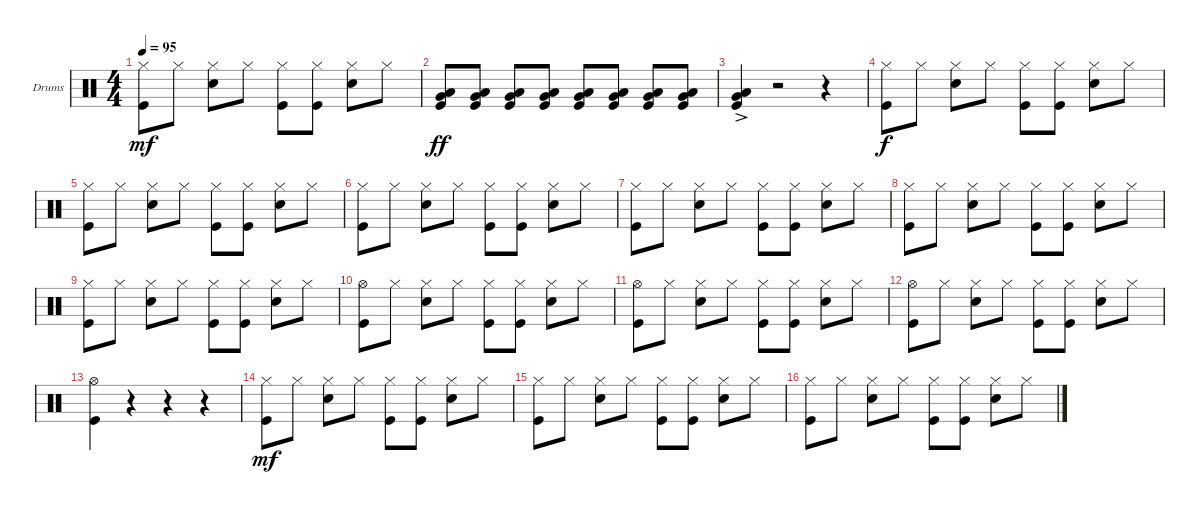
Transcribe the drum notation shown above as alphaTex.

\defaultSystemsLayout 4
\bracketExtendMode groupsimilarinstruments
\firstSystemTrackNameOrientation horizontal
\otherSystemsTrackNameOrientation horizontal
\track ("Drumkit" "Drums") {instrument percussion}
\staff {score}
\articulation defaults
\ts (4 4)
\tempo 95
\clef neutral
\ks c
("Kick (hit)" "Hi-Hat (closed)").8{dy mf} "Hi-Hat (closed)".8 ("Hi-Hat (closed)" "Snare (hit) 2").8 "Hi-Hat (closed)".8 ("Hi-Hat (closed)" "Kick (hit)").8 ("Hi-Hat (closed)" "Kick (hit)").8 ("Hi-Hat (closed)" "Snare (hit) 2").8 "Hi-Hat (closed)".8 |
("Kick (hit)" "Low Tom (hit)" "Very Low Tom (hit)").8{dy ff} ("Low Tom (hit)" "Kick (hit)" "Very Low Tom (hit)").8 ("Kick (hit)" "Low Tom (hit)" "Very Low Tom (hit)").8 ("Low Tom (hit)" "Kick (hit)" "Very Low Tom (hit)").8 ("Kick (hit)" "Low Tom (hit)" "Very Low Tom (hit)").8 ("Low Tom (hit)" "Kick (hit)" "Very Low Tom (hit)").8 ("Kick (hit)" "Low Tom (hit)" "Very Low Tom (hit)").8 ("Low Tom (hit)" "Kick (hit)" "Very Low Tom (hit)").8 |
("Kick (hit)" "Low Tom (hit)"{ac} "Very Low Tom (hit)").4 r.2 r.4 |
("Kick (hit)" "Hi-Hat (closed)").8{dy f} "Hi-Hat (closed)".8 ("Hi-Hat (closed)" "Snare (hit) 2").8 "Hi-Hat (closed)".8 ("Hi-Hat (closed)" "Kick (hit)").8 ("Hi-Hat (closed)" "Kick (hit)").8 ("Hi-Hat (closed)" "Snare (hit) 2").8 "Hi-Hat (closed)".8 |
("Kick (hit)" "Hi-Hat (closed)").8 "Hi-Hat (closed)".8 ("Hi-Hat (closed)" "Snare (hit) 2").8 "Hi-Hat (closed)".8 ("Hi-Hat (closed)" "Kick (hit)").8 ("Hi-Hat (closed)" "Kick (hit)").8 ("Hi-Hat (closed)" "Snare (hit) 2").8 "Hi-Hat (closed)".8 |
("Kick (hit)" "Hi-Hat (closed)").8 "Hi-Hat (closed)".8 ("Hi-Hat (closed)" "Snare (hit) 2").8 "Hi-Hat (closed)".8 ("Hi-Hat (closed)" "Kick (hit)").8 ("Hi-Hat (closed)" "Kick (hit)").8 ("Hi-Hat (closed)" "Snare (hit) 2").8 "Hi-Hat (closed)".8 |
("Kick (hit)" "Hi-Hat (closed)").8 "Hi-Hat (closed)".8 ("Hi-Hat (closed)" "Snare (hit) 2").8 "Hi-Hat (closed)".8 ("Hi-Hat (closed)" "Kick (hit)").8 ("Hi-Hat (closed)" "Kick (hit)").8 ("Hi-Hat (closed)" "Snare (hit) 2").8 "Hi-Hat (closed)".8 |
("Kick (hit)" "Hi-Hat (closed)").8 "Hi-Hat (closed)".8 ("Hi-Hat (closed)" "Snare (hit) 2").8 "Hi-Hat (closed)".8 ("Hi-Hat (closed)" "Kick (hit)").8 ("Hi-Hat (closed)" "Kick (hit)").8 ("Hi-Hat (closed)" "Snare (hit) 2").8 "Hi-Hat (closed)".8 |
("Kick (hit)" "Hi-Hat (closed)").8 "Hi-Hat (closed)".8 ("Hi-Hat (closed)" "Snare (hit) 2").8 "Hi-Hat (closed)".8 ("Hi-Hat (closed)" "Kick (hit)").8 ("Hi-Hat (closed)" "Kick (hit)").8 ("Hi-Hat (closed)" "Snare (hit) 2").8 "Hi-Hat (closed)".8 |
("Kick (hit)" "Hi-Hat (open)").8 "Hi-Hat (closed)".8 ("Hi-Hat (closed)" "Snare (hit) 2").8 "Hi-Hat (closed)".8 ("Hi-Hat (closed)" "Kick (hit)").8 ("Hi-Hat (closed)" "Kick (hit)").8 ("Hi-Hat (closed)" "Snare (hit) 2").8 "Hi-Hat (closed)".8 |
("Kick (hit)" "Hi-Hat (open)").8 "Hi-Hat (closed)".8 ("Hi-Hat (closed)" "Snare (hit) 2").8 "Hi-Hat (closed)".8 ("Hi-Hat (closed)" "Kick (hit)").8 ("Hi-Hat (closed)" "Kick (hit)").8 ("Hi-Hat (closed)" "Snare (hit) 2").8 "Hi-Hat (closed)".8 |
("Kick (hit)" "Hi-Hat (open)").8 "Hi-Hat (closed)".8 ("Hi-Hat (closed)" "Snare (hit) 2").8 "Hi-Hat (closed)".8 ("Hi-Hat (closed)" "Kick (hit)").8 ("Hi-Hat (closed)" "Kick (hit)").8 ("Hi-Hat (closed)" "Snare (hit) 2").8 "Hi-Hat (closed)".8 |
("Kick (hit)" "Hi-Hat (open)").4 r.4 r.4 r.4 |
("Kick (hit)" "Hi-Hat (closed)").8{dy mf} "Hi-Hat (closed)".8 ("Hi-Hat (closed)" "Snare (hit) 2").8 "Hi-Hat (closed)".8 ("Hi-Hat (closed)" "Kick (hit)").8 ("Hi-Hat (closed)" "Kick (hit)").8 ("Hi-Hat (closed)" "Snare (hit) 2").8 "Hi-Hat (closed)".8 |
("Kick (hit)" "Hi-Hat (closed)").8 "Hi-Hat (closed)".8 ("Hi-Hat (closed)" "Snare (hit) 2").8 "Hi-Hat (closed)".8 ("Hi-Hat (closed)" "Kick (hit)").8 ("Hi-Hat (closed)" "Kick (hit)").8 ("Hi-Hat (closed)" "Snare (hit) 2").8 "Hi-Hat (closed)".8 |
("Kick (hit)" "Hi-Hat (closed)").8 "Hi-Hat (closed)".8 ("Hi-Hat (closed)" "Snare (hit) 2").8 "Hi-Hat (closed)".8 ("Hi-Hat (closed)" "Kick (hit)").8 ("Hi-Hat (closed)" "Kick (hit)").8 ("Hi-Hat (closed)" "Snare (hit) 2").8 "Hi-Hat (closed)".8
